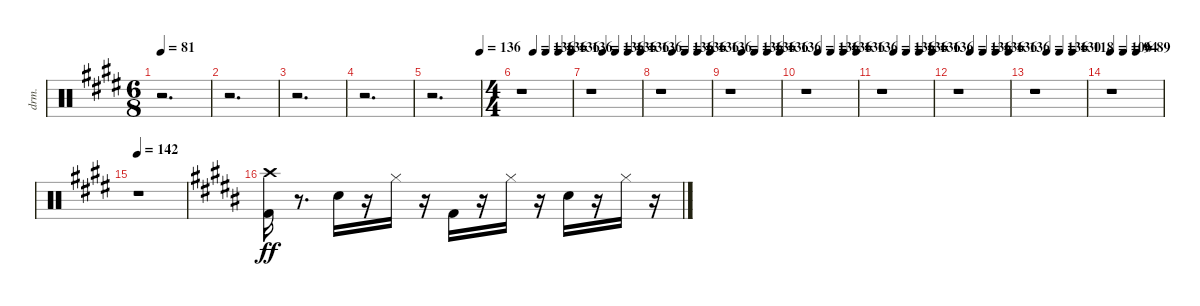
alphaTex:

\bracketExtendMode nobrackets
\track ("Drums" "drm.") {instrument percussion}
\staff {score}
\articulation defaults
\ts (6 8)
\tempo 81
\clef neutral
\ks c#minor
r.2{d dy ff beam Down} |
r.2{d beam Down} |
r.2{d beam Down} |
r.2{d beam Down} |
\tempo (136 0.999306)
r.2{d beam Down} |
\ts (4 4)
\tempo (136 0.249479)
\tempo (136 0.499479)
\tempo (136 0.749479)
\tempo (136 0.999479)
r.1{beam Down} |
\tempo (136 0.249479)
\tempo (136 0.499479)
\tempo (136 0.749479)
\tempo (136 0.999479)
r.1{beam Down} |
\tempo (136 0.249479)
\tempo (136 0.499479)
\tempo (136 0.749479)
\tempo (136 0.999479)
r.1{beam Down} |
\tempo (136 0.249479)
\tempo (136 0.499479)
\tempo (136 0.749479)
\tempo (136 0.999479)
r.1{beam Down} |
\tempo (136 0.249479)
\tempo (136 0.499479)
\tempo (136 0.749479)
\tempo (136 0.999479)
r.1{beam Down} |
\tempo (136 0.249479)
\tempo (136 0.499479)
\tempo (136 0.749479)
\tempo (136 0.999479)
r.1{beam Down} |
\tempo (136 0.249479)
\tempo (136 0.499479)
\tempo (136 0.749479)
\tempo (136 0.999479)
r.1{beam Down} |
\tempo (136 0.249479)
\tempo (130 0.5)
\tempo (118 0.75)
r.1{beam Down} |
\tempo 106
\tempo (94 0.25)
\tempo (89 0.5)
r.1{beam Down} |
\tempo 142
r.1{beam Down} |
\ks g#minor
("Kick (hit) 2"{acc forcenatural} "Crash high (hit)"{acc #}).16{beam Down} r.8{d beam Down} "Electric Snare (hit)"{acc forcenatural}.16{beam Down} r.16{beam Down} "Hi-Hat (closed)"{acc #}.16{beam Down} r.16{beam Down} "Kick (hit) 2"{acc forcenatural}.16{beam Down} r.16{beam Down} "Hi-Hat (closed)"{acc #}.16{beam Down} r.16{beam Down} "Electric Snare (hit)"{acc forcenatural}.16{beam Down} r.16{beam Down} "Hi-Hat (closed)"{acc #}.16{beam Down} r.16{beam Down}
